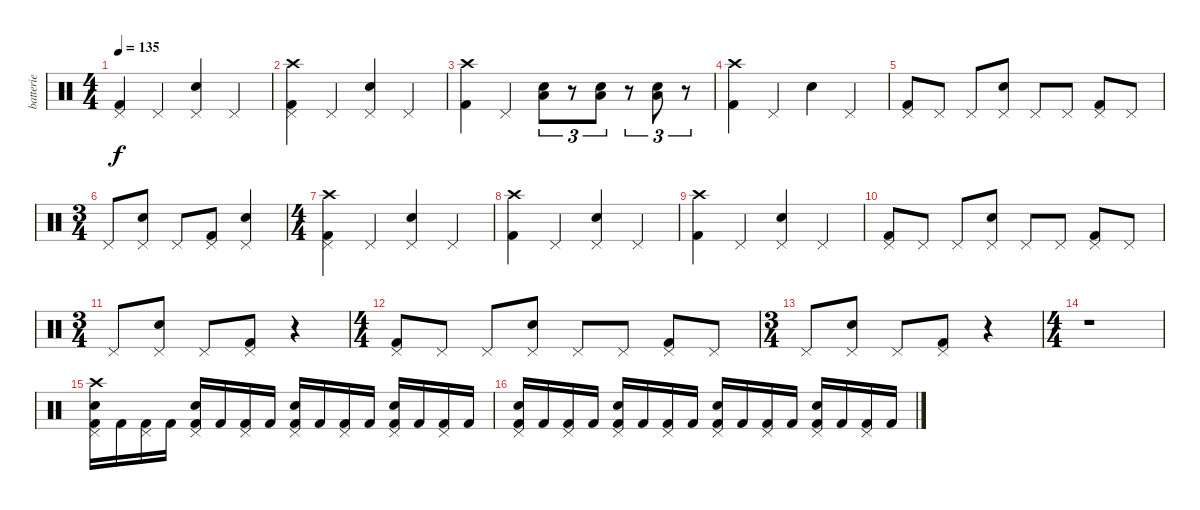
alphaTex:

\track ("batterie" "batterie") {instrument percussion}
\staff {score}
\articulation defaults
\ts (4 4)
\tempo 135
\clef neutral
\ks c
("Kick (hit) 2" "Pedal Hi-Hat (hit)").4{dy f} "Pedal Hi-Hat (hit)".4 ("Snare (hit) 2" "Pedal Hi-Hat (hit)").4 "Pedal Hi-Hat (hit)".4 |
("Crash high (hit)" "Kick (hit) 2" "Pedal Hi-Hat (hit)").4 "Pedal Hi-Hat (hit)".4 ("Snare (hit) 2" "Pedal Hi-Hat (hit)").4 "Pedal Hi-Hat (hit)".4 |
("Crash high (hit)" "Kick (hit) 2").4 "Pedal Hi-Hat (hit)".4 ("Low Tom (hit)" "Snare (hit) 2").8{tu (3 2)} r.8{tu (3 2)} ("Low Tom (hit)" "Snare (hit) 2").8{tu (3 2)} r.8{tu (3 2)} ("Low Tom (hit)" "Snare (hit) 2").8{tu (3 2)} r.8{tu (3 2)} |
("Crash high (hit)" "Kick (hit) 2").4 "Pedal Hi-Hat (hit)".4 "Snare (hit) 2".4 "Pedal Hi-Hat (hit)".4 |
("Kick (hit) 2" "Pedal Hi-Hat (hit)").8 "Pedal Hi-Hat (hit)".8 "Pedal Hi-Hat (hit)".8 ("Snare (hit) 2" "Pedal Hi-Hat (hit)").8 "Pedal Hi-Hat (hit)".8 "Pedal Hi-Hat (hit)".8 ("Kick (hit) 2" "Pedal Hi-Hat (hit)").8 "Pedal Hi-Hat (hit)".8 |
\ts (3 4)
"Pedal Hi-Hat (hit)".8 ("Snare (hit) 2" "Pedal Hi-Hat (hit)").8 "Pedal Hi-Hat (hit)".8 ("Kick (hit) 2" "Pedal Hi-Hat (hit)").8 ("Snare (hit) 2" "Pedal Hi-Hat (hit)").4 |
\ts (4 4)
("Crash high (hit)" "Kick (hit) 2" "Pedal Hi-Hat (hit)").4 "Pedal Hi-Hat (hit)".4 ("Snare (hit) 2" "Pedal Hi-Hat (hit)").4 "Pedal Hi-Hat (hit)".4 |
("Crash high (hit)" "Kick (hit) 2").4 "Pedal Hi-Hat (hit)".4 ("Snare (hit) 2" "Pedal Hi-Hat (hit)").4 "Pedal Hi-Hat (hit)".4 |
("Crash high (hit)" "Kick (hit) 2").4 "Pedal Hi-Hat (hit)".4 ("Snare (hit) 2" "Pedal Hi-Hat (hit)").4 "Pedal Hi-Hat (hit)".4 |
("Kick (hit) 2" "Pedal Hi-Hat (hit)").8 "Pedal Hi-Hat (hit)".8 "Pedal Hi-Hat (hit)".8 ("Snare (hit) 2" "Pedal Hi-Hat (hit)").8 "Pedal Hi-Hat (hit)".8 "Pedal Hi-Hat (hit)".8 ("Kick (hit) 2" "Pedal Hi-Hat (hit)").8 "Pedal Hi-Hat (hit)".8 |
\ts (3 4)
"Pedal Hi-Hat (hit)".8 ("Snare (hit) 2" "Pedal Hi-Hat (hit)").8 "Pedal Hi-Hat (hit)".8 ("Kick (hit) 2" "Pedal Hi-Hat (hit)").8 r.4 |
\ts (4 4)
("Kick (hit) 2" "Pedal Hi-Hat (hit)").8 "Pedal Hi-Hat (hit)".8 "Pedal Hi-Hat (hit)".8 ("Snare (hit) 2" "Pedal Hi-Hat (hit)").8 "Pedal Hi-Hat (hit)".8 "Pedal Hi-Hat (hit)".8 ("Kick (hit) 2" "Pedal Hi-Hat (hit)").8 "Pedal Hi-Hat (hit)".8 |
\ts (3 4)
"Pedal Hi-Hat (hit)".8 ("Snare (hit) 2" "Pedal Hi-Hat (hit)").8 "Pedal Hi-Hat (hit)".8 ("Kick (hit) 2" "Pedal Hi-Hat (hit)").8 r.4 |
\ts (4 4)
r.1 |
("Crash high (hit)" "Snare (hit) 2" "Kick (hit) 2" "Pedal Hi-Hat (hit)").16 "Kick (hit) 2".16 ("Kick (hit) 2" "Pedal Hi-Hat (hit)").16 "Kick (hit) 2".16 ("Snare (hit) 2" "Kick (hit) 2" "Pedal Hi-Hat (hit)").16 "Kick (hit) 2".16 ("Kick (hit) 2" "Pedal Hi-Hat (hit)").16 "Kick (hit) 2".16 ("Snare (hit) 2" "Kick (hit) 2" "Pedal Hi-Hat (hit)").16 "Kick (hit) 2".16 ("Kick (hit) 2" "Pedal Hi-Hat (hit)").16 "Kick (hit) 2".16 ("Snare (hit) 2" "Kick (hit) 2" "Pedal Hi-Hat (hit)").16 "Kick (hit) 2".16 ("Kick (hit) 2" "Pedal Hi-Hat (hit)").16 "Kick (hit) 2".16 |
("Snare (hit) 2" "Kick (hit) 2" "Pedal Hi-Hat (hit)").16 "Kick (hit) 2".16 ("Kick (hit) 2" "Pedal Hi-Hat (hit)").16 "Kick (hit) 2".16 ("Snare (hit) 2" "Kick (hit) 2" "Pedal Hi-Hat (hit)").16 "Kick (hit) 2".16 ("Kick (hit) 2" "Pedal Hi-Hat (hit)").16 "Kick (hit) 2".16 ("Snare (hit) 2" "Kick (hit) 2" "Pedal Hi-Hat (hit)").16 "Kick (hit) 2".16 ("Kick (hit) 2" "Pedal Hi-Hat (hit)").16 "Kick (hit) 2".16 ("Snare (hit) 2" "Kick (hit) 2" "Pedal Hi-Hat (hit)").16 "Kick (hit) 2".16 ("Kick (hit) 2" "Pedal Hi-Hat (hit)").16 "Kick (hit) 2".16
